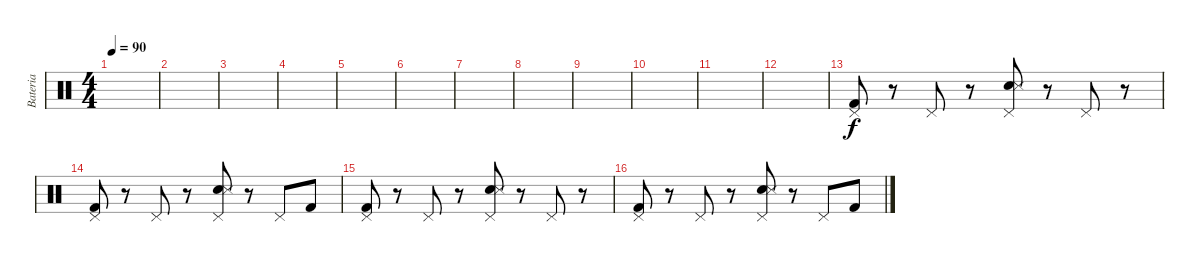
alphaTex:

\track ("Bateria" "Bateria") {instrument percussion}
\staff {score}
\articulation defaults
\ts (4 4)
\tempo 90
\clef neutral
\ks c
|
|
|
|
|
|
|
|
|
|
|
|
("Pedal Hi-Hat (hit)" "Kick (hit) 2").8 r.8 "Pedal Hi-Hat (hit)".8 r.8 ("Pedal Hi-Hat (hit)" "Snare (hit) 2" "Snare (side stick) 3").8 r.8 "Pedal Hi-Hat (hit)".8 r.8 |
("Pedal Hi-Hat (hit)" "Kick (hit) 2").8 r.8 "Pedal Hi-Hat (hit)".8 r.8 ("Pedal Hi-Hat (hit)" "Snare (hit) 2" "Snare (side stick) 3").8 r.8 "Pedal Hi-Hat (hit)".8 "Kick (hit) 2".8 |
("Pedal Hi-Hat (hit)" "Kick (hit) 2").8 r.8 "Pedal Hi-Hat (hit)".8 r.8 ("Pedal Hi-Hat (hit)" "Snare (hit) 2" "Snare (side stick) 3").8 r.8 "Pedal Hi-Hat (hit)".8 r.8 |
("Pedal Hi-Hat (hit)" "Kick (hit) 2").8 r.8 "Pedal Hi-Hat (hit)".8 r.8 ("Pedal Hi-Hat (hit)" "Snare (hit) 2" "Snare (side stick) 3").8 r.8 "Pedal Hi-Hat (hit)".8 "Kick (hit) 2".8
